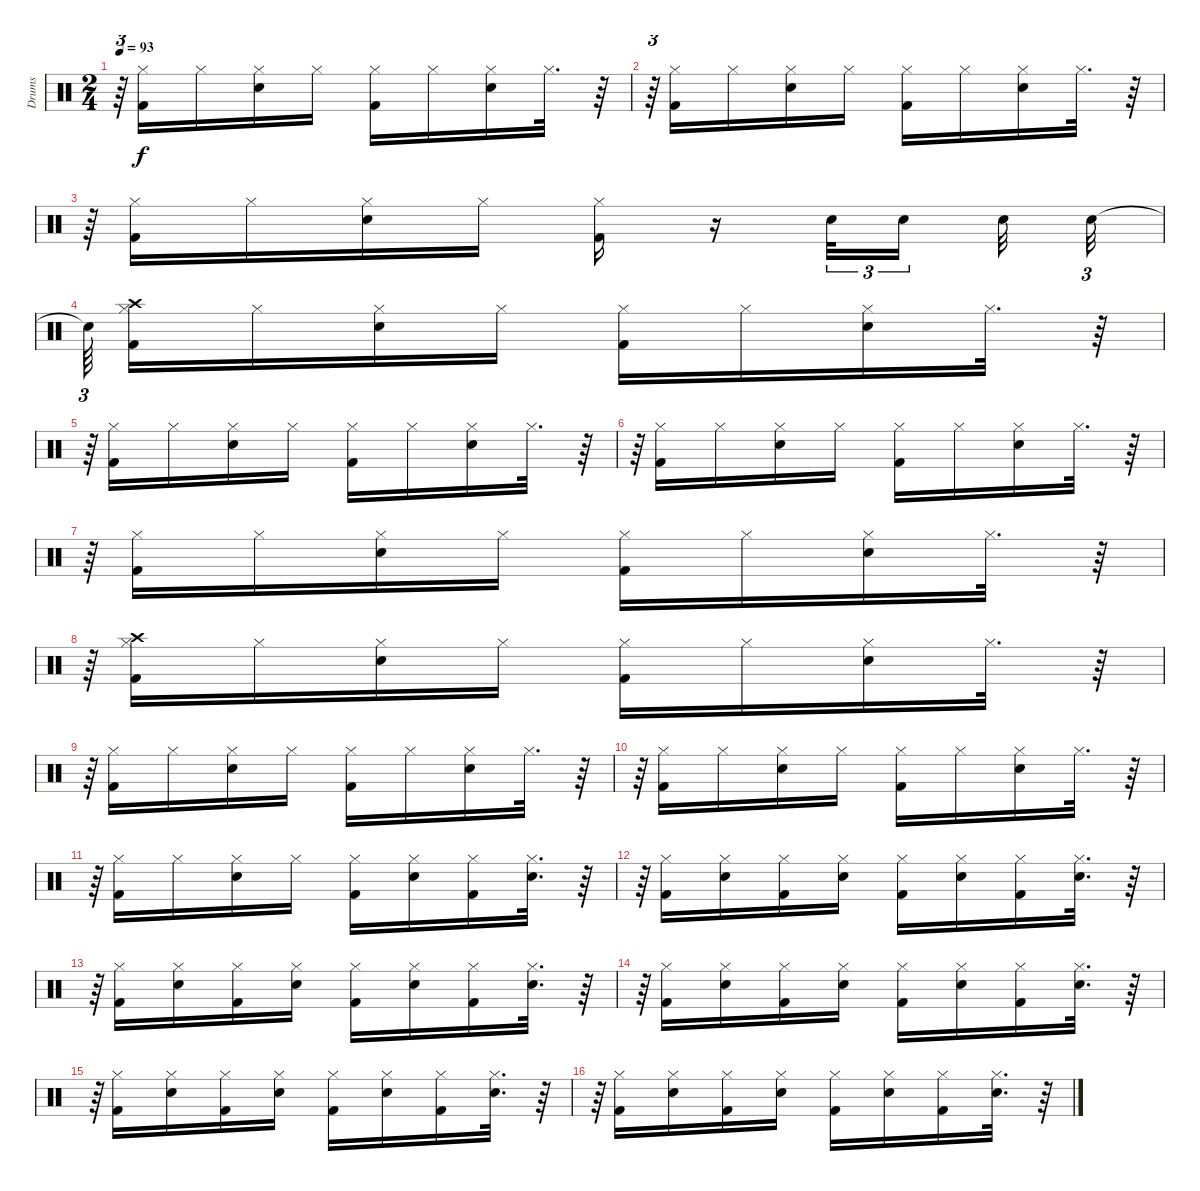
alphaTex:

\track ("Drums" "Drums") {instrument percussion}
\staff {score}
\articulation defaults
\ts (2 4)
\tempo 93
\clef neutral
\ks c
r.64{tu (3 2) dy f} ("Kick (hit) 2" "Hi-Hat (closed)").16 "Hi-Hat (closed)".16 ("Snare (hit) 2" "Hi-Hat (closed)").16 "Hi-Hat (closed)".16 ("Kick (hit) 2" "Hi-Hat (closed)").16 "Hi-Hat (closed)".16 ("Snare (hit) 2" "Hi-Hat (closed)").16 "Hi-Hat (closed)".32{d} r.64 |
r.64{tu (3 2)} ("Kick (hit) 2" "Hi-Hat (closed)").16 "Hi-Hat (closed)".16 ("Snare (hit) 2" "Hi-Hat (closed)").16 "Hi-Hat (closed)".16 ("Kick (hit) 2" "Hi-Hat (closed)").16 "Hi-Hat (closed)".16 ("Snare (hit) 2" "Hi-Hat (closed)").16 "Hi-Hat (closed)".32{d} r.64 |
r.64{tu (3 2)} ("Kick (hit) 2" "Hi-Hat (closed)").16 "Hi-Hat (closed)".16 ("Snare (hit) 2" "Hi-Hat (closed)").16 "Hi-Hat (closed)".16 ("Hi-Hat (closed)" "Kick (hit) 2").16 r.16 "Snare (hit) 2".32{tu (3 2)} "Snare (hit) 2".16{tu (3 2)} "Snare (hit) 2".32 "Snare (hit) 2".32{tu (3 2)} |
"Snare (hit)"{t}.64{tu (3 2)} ("Kick (hit) 2" "Hi-Hat (closed)" "Crash high (hit)").16 "Hi-Hat (closed)".16 ("Snare (hit) 2" "Hi-Hat (closed)").16 "Hi-Hat (closed)".16 ("Kick (hit) 2" "Hi-Hat (closed)").16 "Hi-Hat (closed)".16 ("Snare (hit) 2" "Hi-Hat (closed)").16 "Hi-Hat (closed)".32{d} r.64 |
r.64{tu (3 2)} ("Kick (hit) 2" "Hi-Hat (closed)").16 "Hi-Hat (closed)".16 ("Snare (hit) 2" "Hi-Hat (closed)").16 "Hi-Hat (closed)".16 ("Kick (hit) 2" "Hi-Hat (closed)").16 "Hi-Hat (closed)".16 ("Snare (hit) 2" "Hi-Hat (closed)").16 "Hi-Hat (closed)".32{d} r.64 |
r.64{tu (3 2)} ("Kick (hit) 2" "Hi-Hat (closed)").16 "Hi-Hat (closed)".16 ("Snare (hit) 2" "Hi-Hat (closed)").16 "Hi-Hat (closed)".16 ("Kick (hit) 2" "Hi-Hat (closed)").16 "Hi-Hat (closed)".16 ("Snare (hit) 2" "Hi-Hat (closed)").16 "Hi-Hat (closed)".32{d} r.64 |
r.64{tu (3 2)} ("Kick (hit) 2" "Hi-Hat (closed)").16 "Hi-Hat (closed)".16 ("Snare (hit) 2" "Hi-Hat (closed)").16 "Hi-Hat (closed)".16 ("Kick (hit) 2" "Hi-Hat (closed)").16 "Hi-Hat (closed)".16 ("Snare (hit) 2" "Hi-Hat (closed)").16 "Hi-Hat (closed)".32{d} r.64 |
r.64{tu (3 2)} ("Kick (hit) 2" "Hi-Hat (closed)" "Crash high (hit)").16 "Hi-Hat (closed)".16 ("Snare (hit) 2" "Hi-Hat (closed)").16 "Hi-Hat (closed)".16 ("Kick (hit) 2" "Hi-Hat (closed)").16 "Hi-Hat (closed)".16 ("Snare (hit) 2" "Hi-Hat (closed)").16 "Hi-Hat (closed)".32{d} r.64 |
r.64{tu (3 2)} ("Kick (hit) 2" "Hi-Hat (closed)").16 "Hi-Hat (closed)".16 ("Snare (hit) 2" "Hi-Hat (closed)").16 "Hi-Hat (closed)".16 ("Kick (hit) 2" "Hi-Hat (closed)").16 "Hi-Hat (closed)".16 ("Snare (hit) 2" "Hi-Hat (closed)").16 "Hi-Hat (closed)".32{d} r.64 |
r.64{tu (3 2)} ("Kick (hit) 2" "Hi-Hat (closed)").16 "Hi-Hat (closed)".16 ("Snare (hit) 2" "Hi-Hat (closed)").16 "Hi-Hat (closed)".16 ("Kick (hit) 2" "Hi-Hat (closed)").16 "Hi-Hat (closed)".16 ("Snare (hit) 2" "Hi-Hat (closed)").16 "Hi-Hat (closed)".32{d} r.64 |
r.64{tu (3 2)} ("Kick (hit) 2" "Hi-Hat (closed)").16 "Hi-Hat (closed)".16 ("Snare (hit) 2" "Hi-Hat (closed)").16 "Hi-Hat (closed)".16 ("Kick (hit) 2" "Hi-Hat (closed)").16 ("Snare (hit) 2" "Hi-Hat (closed)").16 ("Kick (hit) 2" "Hi-Hat (closed)").16 ("Snare (hit) 2" "Hi-Hat (closed)").32{d} r.64 |
r.64{tu (3 2)} ("Hi-Hat (closed)" "Kick (hit) 2").16 ("Hi-Hat (closed)" "Snare (hit) 2").16 ("Hi-Hat (closed)" "Kick (hit) 2").16 ("Hi-Hat (closed)" "Snare (hit) 2").16 ("Kick (hit) 2" "Hi-Hat (closed)").16 ("Snare (hit) 2" "Hi-Hat (closed)").16 ("Kick (hit) 2" "Hi-Hat (closed)").16 ("Snare (hit) 2" "Hi-Hat (closed)").32{d} r.64 |
r.64{tu (3 2)} ("Kick (hit) 2" "Hi-Hat (closed)").16 ("Snare (hit) 2" "Hi-Hat (closed)").16 ("Kick (hit) 2" "Hi-Hat (closed)").16 ("Snare (hit) 2" "Hi-Hat (closed)").16 ("Hi-Hat (closed)" "Kick (hit) 2").16 ("Hi-Hat (closed)" "Snare (hit) 2").16 ("Hi-Hat (closed)" "Kick (hit) 2").16 ("Hi-Hat (closed)" "Snare (hit) 2").32{d} r.64 |
r.64{tu (3 2)} ("Kick (hit) 2" "Hi-Hat (closed)").16 ("Snare (hit) 2" "Hi-Hat (closed)").16 ("Kick (hit) 2" "Hi-Hat (closed)").16 ("Snare (hit) 2" "Hi-Hat (closed)").16 ("Hi-Hat (closed)" "Kick (hit) 2").16 ("Hi-Hat (closed)" "Snare (hit) 2").16 ("Hi-Hat (closed)" "Kick (hit) 2").16 ("Hi-Hat (closed)" "Snare (hit) 2").32{d} r.64 |
r.64{tu (3 2)} ("Kick (hit) 2" "Hi-Hat (closed)").16 ("Snare (hit) 2" "Hi-Hat (closed)").16 ("Kick (hit) 2" "Hi-Hat (closed)").16 ("Snare (hit) 2" "Hi-Hat (closed)").16 ("Hi-Hat (closed)" "Kick (hit) 2").16 ("Hi-Hat (closed)" "Snare (hit) 2").16 ("Hi-Hat (closed)" "Kick (hit) 2").16 ("Hi-Hat (closed)" "Snare (hit) 2").32{d} r.64 |
r.64{tu (3 2)} ("Kick (hit) 2" "Hi-Hat (closed)").16 ("Snare (hit) 2" "Hi-Hat (closed)").16 ("Kick (hit) 2" "Hi-Hat (closed)").16 ("Snare (hit) 2" "Hi-Hat (closed)").16 ("Hi-Hat (closed)" "Kick (hit) 2").16 ("Hi-Hat (closed)" "Snare (hit) 2").16 ("Hi-Hat (closed)" "Kick (hit) 2").16 ("Hi-Hat (closed)" "Snare (hit) 2").32{d} r.64
